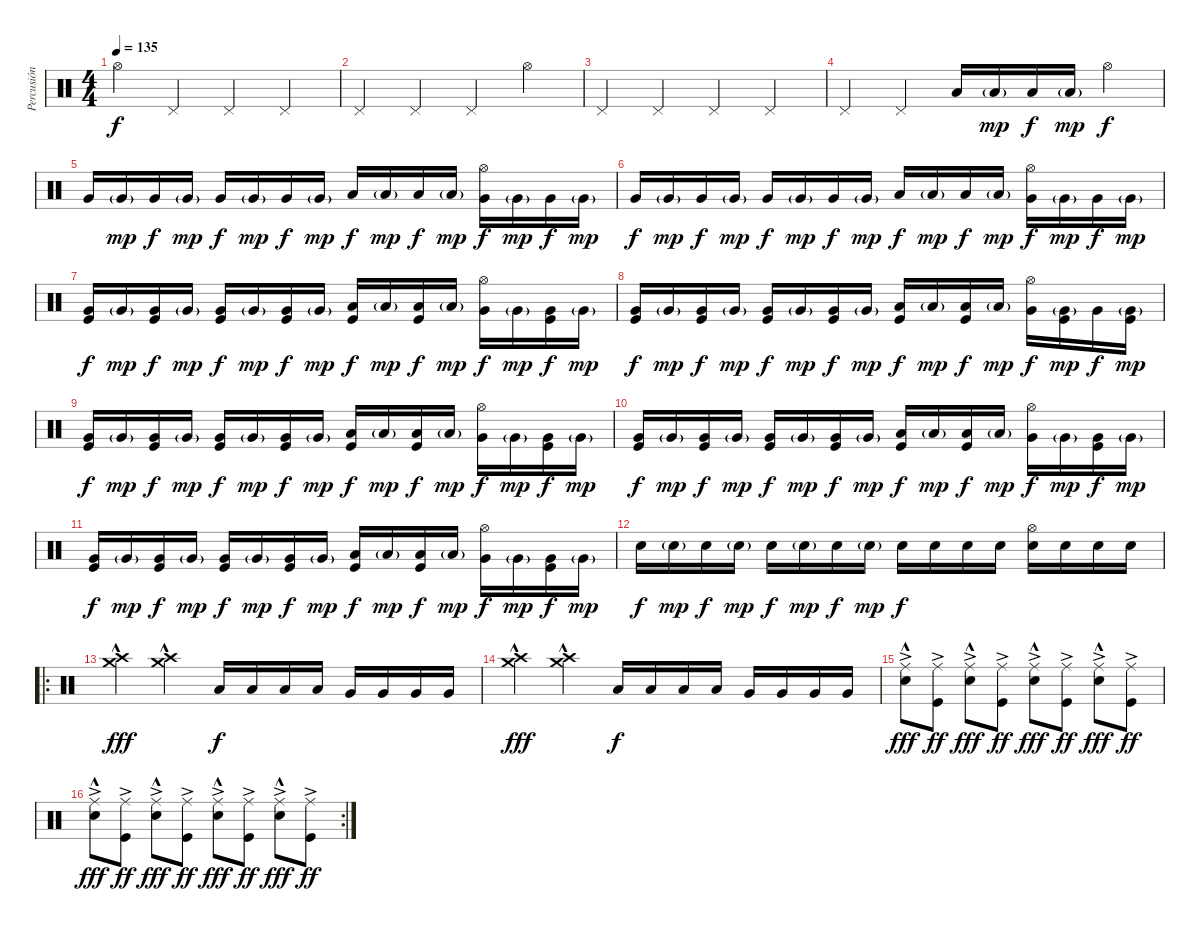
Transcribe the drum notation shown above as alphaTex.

\track ("Percusión" "Percusión") {instrument percussion}
\staff {score}
\articulation defaults
\ts (4 4)
\tempo 135
\clef neutral
\ks c "Hi-Hat (open)".4{dy f} "Pedal Hi-Hat (hit)".4 "Pedal Hi-Hat (hit)".4 "Pedal Hi-Hat (hit)".4
|
"Pedal Hi-Hat (hit)".4 "Pedal Hi-Hat (hit)".4 "Pedal Hi-Hat (hit)".4 "Hi-Hat (open)".4 |
"Pedal Hi-Hat (hit)".4 "Pedal Hi-Hat (hit)".4 "Pedal Hi-Hat (hit)".4 "Pedal Hi-Hat (hit)".4 |
"Pedal Hi-Hat (hit)".4 "Pedal Hi-Hat (hit)".4 "Low Tom (hit)".16 "Low Tom (hit)"{g}.16{dy mp} "Low Tom (hit)".16{dy f} "Low Tom (hit)"{g}.16{dy mp} "Hi-Hat (open)".4{dy f} |
"Very Low Tom (hit)".16 "Very Low Tom (hit)"{g}.16{dy mp} "Very Low Tom (hit)".16{dy f} "Very Low Tom (hit)"{g}.16{dy mp} "Very Low Tom (hit)".16{dy f} "Very Low Tom (hit)"{g}.16{dy mp} "Very Low Tom (hit)".16{dy f} "Very Low Tom (hit)"{g}.16{dy mp} "Low Tom (hit)".16{dy f} "Low Tom (hit)"{g}.16{dy mp} "Low Tom (hit)".16{dy f} "Low Tom (hit)"{g}.16{dy mp} ("Very Low Tom (hit)" "Hi-Hat (open)").16{dy f} "Very Low Tom (hit)"{g}.16{dy mp} "Very Low Tom (hit)".16{dy f} "Very Low Tom (hit)"{g}.16{dy mp} |
"Very Low Tom (hit)".16{dy f} "Very Low Tom (hit)"{g}.16{dy mp} "Very Low Tom (hit)".16{dy f} "Very Low Tom (hit)"{g}.16{dy mp} "Very Low Tom (hit)".16{dy f} "Very Low Tom (hit)"{g}.16{dy mp} "Very Low Tom (hit)".16{dy f} "Very Low Tom (hit)"{g}.16{dy mp} "Low Tom (hit)".16{dy f} "Low Tom (hit)"{g}.16{dy mp} "Low Tom (hit)".16{dy f} "Low Tom (hit)"{g}.16{dy mp} ("Very Low Tom (hit)" "Hi-Hat (open)").16{dy f} "Very Low Tom (hit)"{g}.16{dy mp} "Very Low Tom (hit)".16{dy f} "Very Low Tom (hit)"{g}.16{dy mp} |
("Very Low Tom (hit)" "Kick (hit)").16{dy f} "Very Low Tom (hit)"{g}.16{dy mp} ("Very Low Tom (hit)" "Kick (hit)").16{dy f} "Very Low Tom (hit)"{g}.16{dy mp} ("Very Low Tom (hit)" "Kick (hit)").16{dy f} "Very Low Tom (hit)"{g}.16{dy mp} ("Very Low Tom (hit)" "Kick (hit)").16{dy f} "Very Low Tom (hit)"{g}.16{dy mp} ("Low Tom (hit)" "Kick (hit)").16{dy f} "Low Tom (hit)"{g}.16{dy mp} ("Low Tom (hit)" "Kick (hit)").16{dy f} "Low Tom (hit)"{g}.16{dy mp} ("Very Low Tom (hit)" "Hi-Hat (open)").16{dy f} "Very Low Tom (hit)"{g}.16{dy mp} ("Very Low Tom (hit)" "Kick (hit)").16{dy f} "Very Low Tom (hit)"{g}.16{dy mp} |
("Very Low Tom (hit)" "Kick (hit)").16{dy f} "Very Low Tom (hit)"{g}.16{dy mp} ("Very Low Tom (hit)" "Kick (hit)").16{dy f} "Very Low Tom (hit)"{g}.16{dy mp} ("Very Low Tom (hit)" "Kick (hit)").16{dy f} "Very Low Tom (hit)"{g}.16{dy mp} ("Very Low Tom (hit)" "Kick (hit)").16{dy f} "Very Low Tom (hit)"{g}.16{dy mp} ("Low Tom (hit)" "Kick (hit)").16{dy f} "Low Tom (hit)"{g}.16{dy mp} ("Low Tom (hit)" "Kick (hit)").16{dy f} "Low Tom (hit)"{g}.16{dy mp} ("Very Low Tom (hit)" "Hi-Hat (open)").16{dy f} ("Very Low Tom (hit)"{g} "Kick (hit)").16{dy mp} "Very Low Tom (hit)".16{dy f} ("Very Low Tom (hit)"{g} "Kick (hit)").16{dy mp} |
("Very Low Tom (hit)" "Kick (hit)").16{dy f} "Very Low Tom (hit)"{g}.16{dy mp} ("Very Low Tom (hit)" "Kick (hit)").16{dy f} "Very Low Tom (hit)"{g}.16{dy mp} ("Very Low Tom (hit)" "Kick (hit)").16{dy f} "Very Low Tom (hit)"{g}.16{dy mp} ("Very Low Tom (hit)" "Kick (hit)").16{dy f} "Very Low Tom (hit)"{g}.16{dy mp} ("Low Tom (hit)" "Kick (hit)").16{dy f} "Low Tom (hit)"{g}.16{dy mp} ("Low Tom (hit)" "Kick (hit)").16{dy f} "Low Tom (hit)"{g}.16{dy mp} ("Very Low Tom (hit)" "Hi-Hat (open)").16{dy f} "Very Low Tom (hit)"{g}.16{dy mp} ("Very Low Tom (hit)" "Kick (hit)").16{dy f} "Very Low Tom (hit)"{g}.16{dy mp} |
("Very Low Tom (hit)" "Kick (hit)").16{dy f} "Very Low Tom (hit)"{g}.16{dy mp} ("Very Low Tom (hit)" "Kick (hit)").16{dy f} "Very Low Tom (hit)"{g}.16{dy mp} ("Very Low Tom (hit)" "Kick (hit)").16{dy f} "Very Low Tom (hit)"{g}.16{dy mp} ("Very Low Tom (hit)" "Kick (hit)").16{dy f} "Very Low Tom (hit)"{g}.16{dy mp} ("Low Tom (hit)" "Kick (hit)").16{dy f} "Low Tom (hit)"{g}.16{dy mp} ("Low Tom (hit)" "Kick (hit)").16{dy f} "Low Tom (hit)"{g}.16{dy mp} ("Very Low Tom (hit)" "Hi-Hat (open)").16{dy f} "Very Low Tom (hit)"{g}.16{dy mp} ("Very Low Tom (hit)" "Kick (hit)").16{dy f} "Very Low Tom (hit)"{g}.16{dy mp} |
("Very Low Tom (hit)" "Kick (hit)").16{dy f} "Very Low Tom (hit)"{g}.16{dy mp} ("Very Low Tom (hit)" "Kick (hit)").16{dy f} "Very Low Tom (hit)"{g}.16{dy mp} ("Very Low Tom (hit)" "Kick (hit)").16{dy f} "Very Low Tom (hit)"{g}.16{dy mp} ("Very Low Tom (hit)" "Kick (hit)").16{dy f} "Very Low Tom (hit)"{g}.16{dy mp} ("Low Tom (hit)" "Kick (hit)").16{dy f} "Low Tom (hit)"{g}.16{dy mp} ("Low Tom (hit)" "Kick (hit)").16{dy f} "Low Tom (hit)"{g}.16{dy mp} ("Very Low Tom (hit)" "Hi-Hat (open)").16{dy f} "Very Low Tom (hit)"{g}.16{dy mp} ("Very Low Tom (hit)" "Kick (hit)").16{dy f} "Very Low Tom (hit)"{g}.16{dy mp} |
"Electric Snare (hit)".16{dy f} "Electric Snare (hit)"{g}.16{dy mp} "Electric Snare (hit)".16{dy f} "Electric Snare (hit)"{g}.16{dy mp} "Electric Snare (hit)".16{dy f} "Electric Snare (hit)"{g}.16{dy mp} "Electric Snare (hit)".16{dy f} "Electric Snare (hit)"{g}.16{dy mp} "Electric Snare (hit)".16{dy f} "Electric Snare (hit)".16 "Electric Snare (hit)".16 "Electric Snare (hit)".16 ("Electric Snare (hit)" "Hi-Hat (open)").16 "Electric Snare (hit)".16 "Electric Snare (hit)".16 "Electric Snare (hit)".16 |
\ro
("Crash high (hit)" "Crash medium (hit)"{hac}).4{dy fff} ("Crash high (hit)" "Crash medium (hit)"{hac}).4 "Low Floor Tom (hit)".16{dy f} "Low Floor Tom (hit)".16 "Low Floor Tom (hit)".16 "Low Floor Tom (hit)".16 "Very Low Tom (hit)".16 "Very Low Tom (hit)".16 "Very Low Tom (hit)".16 "Very Low Tom (hit)".16 |
("Crash high (hit)" "Crash medium (hit)"{hac}).4{dy fff} ("Crash high (hit)" "Crash medium (hit)"{hac}).4 "Low Floor Tom (hit)".16{dy f} "Low Floor Tom (hit)".16 "Low Floor Tom (hit)".16 "Low Floor Tom (hit)".16 "Very Low Tom (hit)".16 "Very Low Tom (hit)".16 "Very Low Tom (hit)".16 "Very Low Tom (hit)".16 |
("Ride (middle)"{ac} "Electric Snare (hit)"{hac}).8{dy fff} ("Ride (middle)"{ac} "Kick (hit)").8{dy ff} ("Ride (middle)"{ac} "Electric Snare (hit)"{hac}).8{dy fff} ("Ride (middle)"{ac} "Kick (hit)").8{dy ff} ("Ride (middle)"{ac} "Electric Snare (hit)"{hac}).8{dy fff} ("Ride (middle)"{ac} "Kick (hit)").8{dy ff} ("Ride (middle)"{ac} "Electric Snare (hit)"{hac}).8{dy fff} ("Ride (middle)"{ac} "Kick (hit)").8{dy ff} |
\rc 2
("Ride (middle)"{ac} "Electric Snare (hit)"{hac}).8{dy fff} ("Ride (middle)"{ac} "Kick (hit)").8{dy ff} ("Ride (middle)"{ac} "Electric Snare (hit)"{hac}).8{dy fff} ("Ride (middle)"{ac} "Kick (hit)").8{dy ff} ("Ride (middle)"{ac} "Electric Snare (hit)"{hac}).8{dy fff} ("Ride (middle)"{ac} "Kick (hit)").8{dy ff} ("Ride (middle)"{ac} "Electric Snare (hit)"{hac}).8{dy fff} ("Ride (middle)"{ac} "Kick (hit)").8{dy ff}
